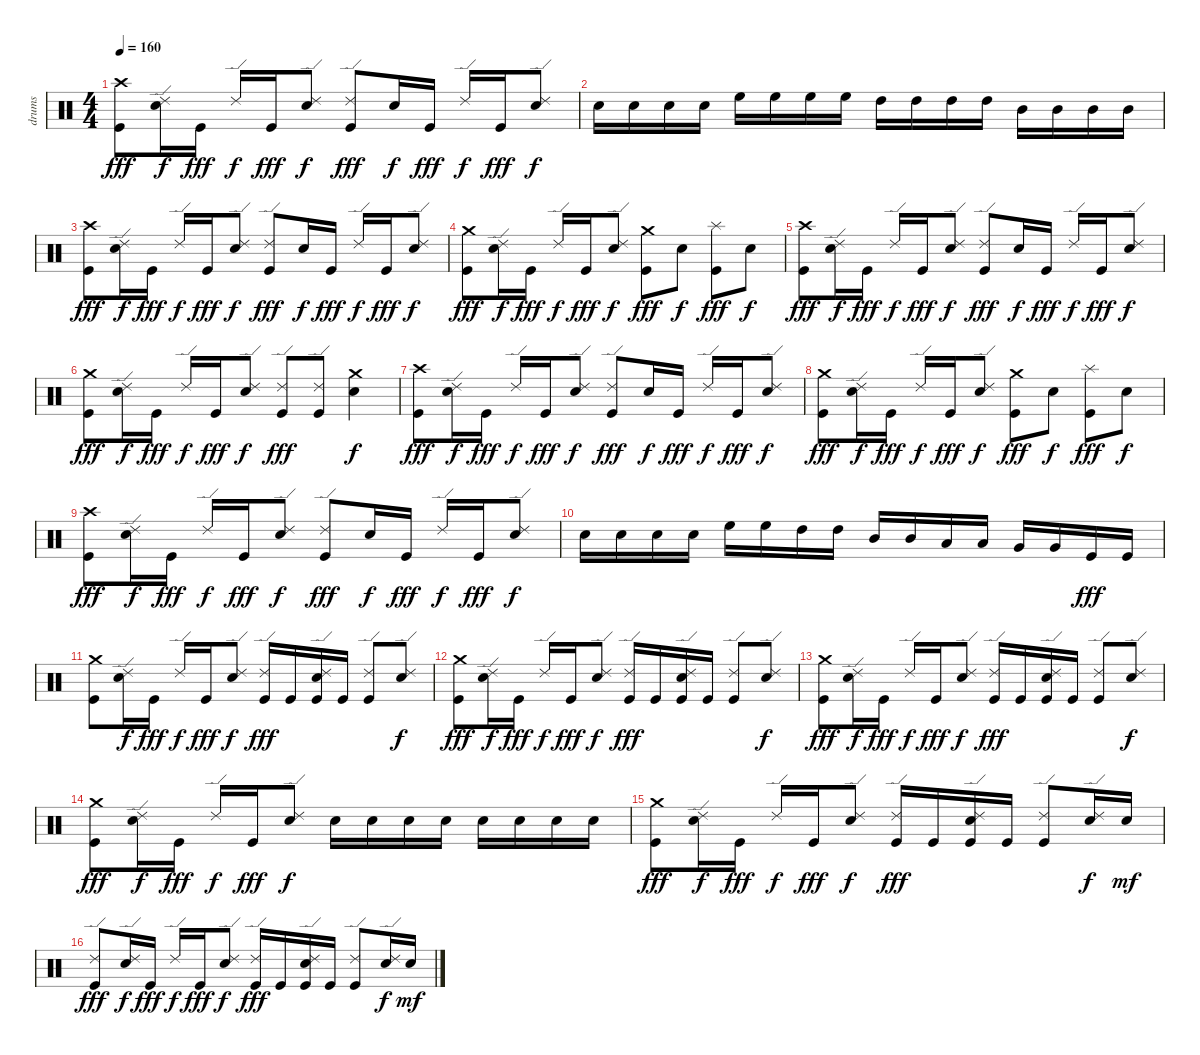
\track ("drums" "drums") {instrument percussion}
\staff {score}
\articulation defaults
\ts (4 4)
\tempo 160
\clef neutral
\ks c
("Crash high (hit)" "Kick (hit)").8{dy fff} ("Ride (edge) 2" "Snare (hit) 2").16{dy f} "Kick (hit)".16{dy fff} "Ride (edge) 2".16{dy f} "Kick (hit)".16{dy fff} ("Ride (edge) 2" "Snare (hit) 2").8{dy f} ("Ride (edge) 2" "Kick (hit)").8{dy fff} "Snare (hit) 2".16{dy f} "Kick (hit)".16{dy fff} "Ride (edge) 2".16{dy f} "Kick (hit)".16{dy fff} ("Ride (edge) 2" "Snare (hit) 2").8{dy f} |
"Snare (hit) 2".16 "Snare (hit) 2".16 "Snare (hit) 2".16 "Snare (hit) 2".16 "High Floor Tom (hit)".16 "High Floor Tom (hit)".16 "High Floor Tom (hit)".16 "High Floor Tom (hit)".16 "High Tom (hit)".16 "High Tom (hit)".16 "High Tom (hit)".16 "High Tom (hit)".16 "Mid Tom (hit)".16 "Mid Tom (hit)".16 "Mid Tom (hit)".16 "Mid Tom (hit)".16 |
("Crash high (hit)" "Kick (hit)").8{dy fff} ("Ride (edge) 2" "Snare (hit) 2").16{dy f} "Kick (hit)".16{dy fff} "Ride (edge) 2".16{dy f} "Kick (hit)".16{dy fff} ("Ride (edge) 2" "Snare (hit) 2").8{dy f} ("Ride (edge) 2" "Kick (hit)").8{dy fff} "Snare (hit) 2".16{dy f} "Kick (hit)".16{dy fff} "Ride (edge) 2".16{dy f} "Kick (hit)".16{dy fff} ("Ride (edge) 2" "Snare (hit) 2").8{dy f} |
("Crash medium (hit)" "Kick (hit)").8{dy fff} ("Ride (edge) 2" "Snare (hit) 2").16{dy f} "Kick (hit)".16{dy fff} "Ride (edge) 2".16{dy f} "Kick (hit)".16{dy fff} ("Ride (edge) 2" "Snare (hit) 2").8{dy f} ("Crash medium (hit)" "Kick (hit)").8{dy fff} "Snare (hit) 2".8{dy f} ("Splash (hit)" "Kick (hit)").8{dy fff} "Snare (hit) 2".8{dy f} |
("Crash high (hit)" "Kick (hit)").8{dy fff} ("Ride (edge) 2" "Snare (hit) 2").16{dy f} "Kick (hit)".16{dy fff} "Ride (edge) 2".16{dy f} "Kick (hit)".16{dy fff} ("Ride (edge) 2" "Snare (hit) 2").8{dy f} ("Ride (edge) 2" "Kick (hit)").8{dy fff} "Snare (hit) 2".16{dy f} "Kick (hit)".16{dy fff} "Ride (edge) 2".16{dy f} "Kick (hit)".16{dy fff} ("Ride (edge) 2" "Snare (hit) 2").8{dy f} |
("Crash medium (hit)" "Kick (hit)").8{dy fff} ("Ride (edge) 2" "Snare (hit) 2").16{dy f} "Kick (hit)".16{dy fff} "Ride (edge) 2".16{dy f} "Kick (hit)".16{dy fff} ("Ride (edge) 2" "Snare (hit) 2").8{dy f} ("Ride (edge) 2" "Kick (hit)").8{dy fff} ("Ride (edge) 2" "Kick (hit)").8 ("Crash medium (hit)" "Snare (hit) 2").4{dy f} |
("Crash high (hit)" "Kick (hit)").8{dy fff} ("Ride (edge) 2" "Snare (hit) 2").16{dy f} "Kick (hit)".16{dy fff} "Ride (edge) 2".16{dy f} "Kick (hit)".16{dy fff} ("Ride (edge) 2" "Snare (hit) 2").8{dy f} ("Ride (edge) 2" "Kick (hit)").8{dy fff} "Snare (hit) 2".16{dy f} "Kick (hit)".16{dy fff} "Ride (edge) 2".16{dy f} "Kick (hit)".16{dy fff} ("Ride (edge) 2" "Snare (hit) 2").8{dy f} |
("Crash medium (hit)" "Kick (hit)").8{dy fff} ("Ride (edge) 2" "Snare (hit) 2").16{dy f} "Kick (hit)".16{dy fff} "Ride (edge) 2".16{dy f} "Kick (hit)".16{dy fff} ("Ride (edge) 2" "Snare (hit) 2").8{dy f} ("Crash medium (hit)" "Kick (hit)").8{dy fff} "Snare (hit) 2".8{dy f} ("Splash (hit)" "Kick (hit)").8{dy fff} "Snare (hit) 2".8{dy f} |
("Crash high (hit)" "Kick (hit)").8{dy fff} ("Ride (edge) 2" "Snare (hit) 2").16{dy f} "Kick (hit)".16{dy fff} "Ride (edge) 2".16{dy f} "Kick (hit)".16{dy fff} ("Ride (edge) 2" "Snare (hit) 2").8{dy f} ("Ride (edge) 2" "Kick (hit)").8{dy fff} "Snare (hit) 2".16{dy f} "Kick (hit)".16{dy fff} "Ride (edge) 2".16{dy f} "Kick (hit)".16{dy fff} ("Ride (edge) 2" "Snare (hit) 2").8{dy f} |
"Snare (hit) 2".16 "Snare (hit) 2".16 "Snare (hit) 2".16 "Snare (hit) 2".16 "High Floor Tom (hit)".16 "High Floor Tom (hit)".16 "High Tom (hit)".16 "High Tom (hit)".16 "Mid Tom (hit)".16 "Mid Tom (hit)".16 "Low Tom (hit)".16 "Low Tom (hit)".16 "Very Low Tom (hit)".16 "Very Low Tom (hit)".16 "Kick (hit)".16{dy fff} "Kick (hit)".16 |
("Crash medium (hit)" "Kick (hit)").8 ("Ride (edge) 2" "Snare (hit) 2").16{dy f} "Kick (hit)".16{dy fff} "Ride (edge) 2".16{dy f} "Kick (hit)".16{dy fff} ("Ride (edge) 2" "Snare (hit) 2").8{dy f} ("Ride (edge) 2" "Kick (hit)").16{dy fff} "Kick (hit)".16 ("Ride (edge) 2" "Snare (hit) 2" "Kick (hit)").16 "Kick (hit)".16 ("Ride (edge) 2" "Kick (hit)").8 ("Ride (edge) 2" "Snare (hit) 2").8{dy f} |
("Crash medium (hit)" "Kick (hit)").8{dy fff} ("Ride (edge) 2" "Snare (hit) 2").16{dy f} "Kick (hit)".16{dy fff} "Ride (edge) 2".16{dy f} "Kick (hit)".16{dy fff} ("Ride (edge) 2" "Snare (hit) 2").8{dy f} ("Ride (edge) 2" "Kick (hit)").16{dy fff} "Kick (hit)".16 ("Ride (edge) 2" "Snare (hit) 2" "Kick (hit)").16 "Kick (hit)".16 ("Ride (edge) 2" "Kick (hit)").8 ("Ride (edge) 2" "Snare (hit) 2").8{dy f} |
("Crash medium (hit)" "Kick (hit)").8{dy fff} ("Ride (edge) 2" "Snare (hit) 2").16{dy f} "Kick (hit)".16{dy fff} "Ride (edge) 2".16{dy f} "Kick (hit)".16{dy fff} ("Ride (edge) 2" "Snare (hit) 2").8{dy f} ("Ride (edge) 2" "Kick (hit)").16{dy fff} "Kick (hit)".16 ("Ride (edge) 2" "Snare (hit) 2" "Kick (hit)").16 "Kick (hit)".16 ("Ride (edge) 2" "Kick (hit)").8 ("Ride (edge) 2" "Snare (hit) 2").8{dy f} |
("Crash medium (hit)" "Kick (hit)").8{dy fff} ("Ride (edge) 2" "Snare (hit) 2").16{dy f} "Kick (hit)".16{dy fff} "Ride (edge) 2".16{dy f} "Kick (hit)".16{dy fff} ("Ride (edge) 2" "Snare (hit) 2").8{dy f} "Snare (hit) 2".16 "Snare (hit) 2".16 "Snare (hit) 2".16 "Snare (hit) 2".16 "Snare (hit) 2".16 "Snare (hit) 2".16 "Snare (hit) 2".16 "Snare (hit) 2".16 |
("Crash medium (hit)" "Kick (hit)").8{dy fff} ("Ride (edge) 2" "Snare (hit) 2").16{dy f} "Kick (hit)".16{dy fff} "Ride (edge) 2".16{dy f} "Kick (hit)".16{dy fff} ("Ride (edge) 2" "Snare (hit) 2").8{dy f} ("Ride (edge) 2" "Kick (hit)").16{dy fff} "Kick (hit)".16 ("Ride (edge) 2" "Snare (hit) 2" "Kick (hit)").16 "Kick (hit)".16 ("Ride (edge) 2" "Kick (hit)").8 ("Ride (edge) 2" "Snare (hit) 2").16{dy f} "Snare (hit) 2".16{dy mf} |
("Ride (edge) 2" "Kick (hit)").8{dy fff} ("Ride (edge) 2" "Snare (hit) 2").16{dy f} "Kick (hit)".16{dy fff} "Ride (edge) 2".16{dy f} "Kick (hit)".16{dy fff} ("Ride (edge) 2" "Snare (hit) 2").8{dy f} ("Ride (edge) 2" "Kick (hit)").16{dy fff} "Kick (hit)".16 ("Ride (edge) 2" "Snare (hit) 2" "Kick (hit)").16 "Kick (hit)".16 ("Ride (edge) 2" "Kick (hit)").8 ("Ride (edge) 2" "Snare (hit) 2").16{dy f} "Snare (hit) 2".16{dy mf}
